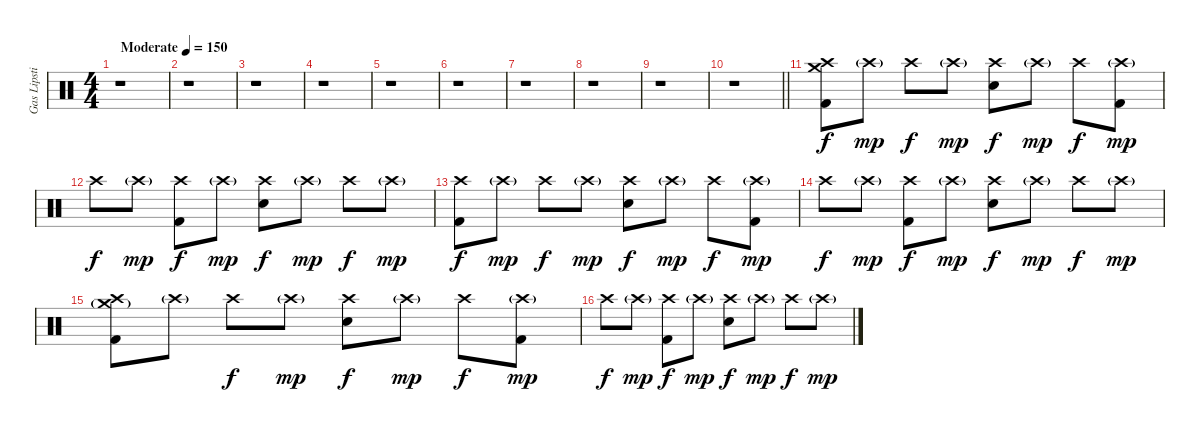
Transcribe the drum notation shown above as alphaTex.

\track ("Gas Lipstick" "Gas Lipsti") {instrument percussion}
\staff {score}
\articulation defaults
\ts (4 4)
\tempo (150 "Moderate")
\clef neutral
\ks c
r.1{dy f} |
r.1 |
r.1 |
r.1 |
r.1 |
r.1 |
r.1 |
r.1 |
r.1 |
\barLineRight lightlight
r.1 |
("Crash medium (hit)" "Crash high (hit)" "Kick (hit) 2").8 "Crash high (hit)"{g}.8{dy mp} "Crash high (hit)".8{dy f} "Crash high (hit)"{g}.8{dy mp} ("Crash high (hit)" "Snare (hit) 2").8{dy f} "Crash high (hit)"{g}.8{dy mp} "Crash high (hit)".8{dy f} ("Crash high (hit)"{g} "Kick (hit) 2").8{dy mp} |
"Crash high (hit)".8{dy f} "Crash high (hit)"{g}.8{dy mp} ("Crash high (hit)" "Kick (hit) 2").8{dy f} "Crash high (hit)"{g}.8{dy mp} ("Crash high (hit)" "Snare (hit) 2").8{dy f} "Crash high (hit)"{g}.8{dy mp} "Crash high (hit)".8{dy f} "Crash high (hit)"{g}.8{dy mp} |
("Crash high (hit)" "Kick (hit) 2").8{dy f} "Crash high (hit)"{g}.8{dy mp} "Crash high (hit)".8{dy f} "Crash high (hit)"{g}.8{dy mp} ("Crash high (hit)" "Snare (hit) 2").8{dy f} "Crash high (hit)"{g}.8{dy mp} "Crash high (hit)".8{dy f} ("Crash high (hit)"{g} "Kick (hit) 2").8{dy mp} |
"Crash high (hit)".8{dy f} "Crash high (hit)"{g}.8{dy mp} ("Crash high (hit)" "Kick (hit) 2").8{dy f} "Crash high (hit)"{g}.8{dy mp} ("Crash high (hit)" "Snare (hit) 2").8{dy f} "Crash high (hit)"{g}.8{dy mp} "Crash high (hit)".8{dy f} "Crash high (hit)"{g}.8{dy mp} |
("Crash medium (hit)"{g} "Crash high (hit)" "Kick (hit) 2").8 "Crash high (hit)"{g}.8 "Crash high (hit)".8{dy f} "Crash high (hit)"{g}.8{dy mp} ("Crash high (hit)" "Snare (hit) 2").8{dy f} "Crash high (hit)"{g}.8{dy mp} "Crash high (hit)".8{dy f} ("Crash high (hit)"{g} "Kick (hit) 2").8{dy mp} |
"Crash high (hit)".8{dy f} "Crash high (hit)"{g}.8{dy mp} ("Crash high (hit)" "Kick (hit) 2").8{dy f} "Crash high (hit)"{g}.8{dy mp} ("Crash high (hit)" "Snare (hit) 2").8{dy f} "Crash high (hit)"{g}.8{dy mp} "Crash high (hit)".8{dy f} "Crash high (hit)"{g}.8{dy mp}
